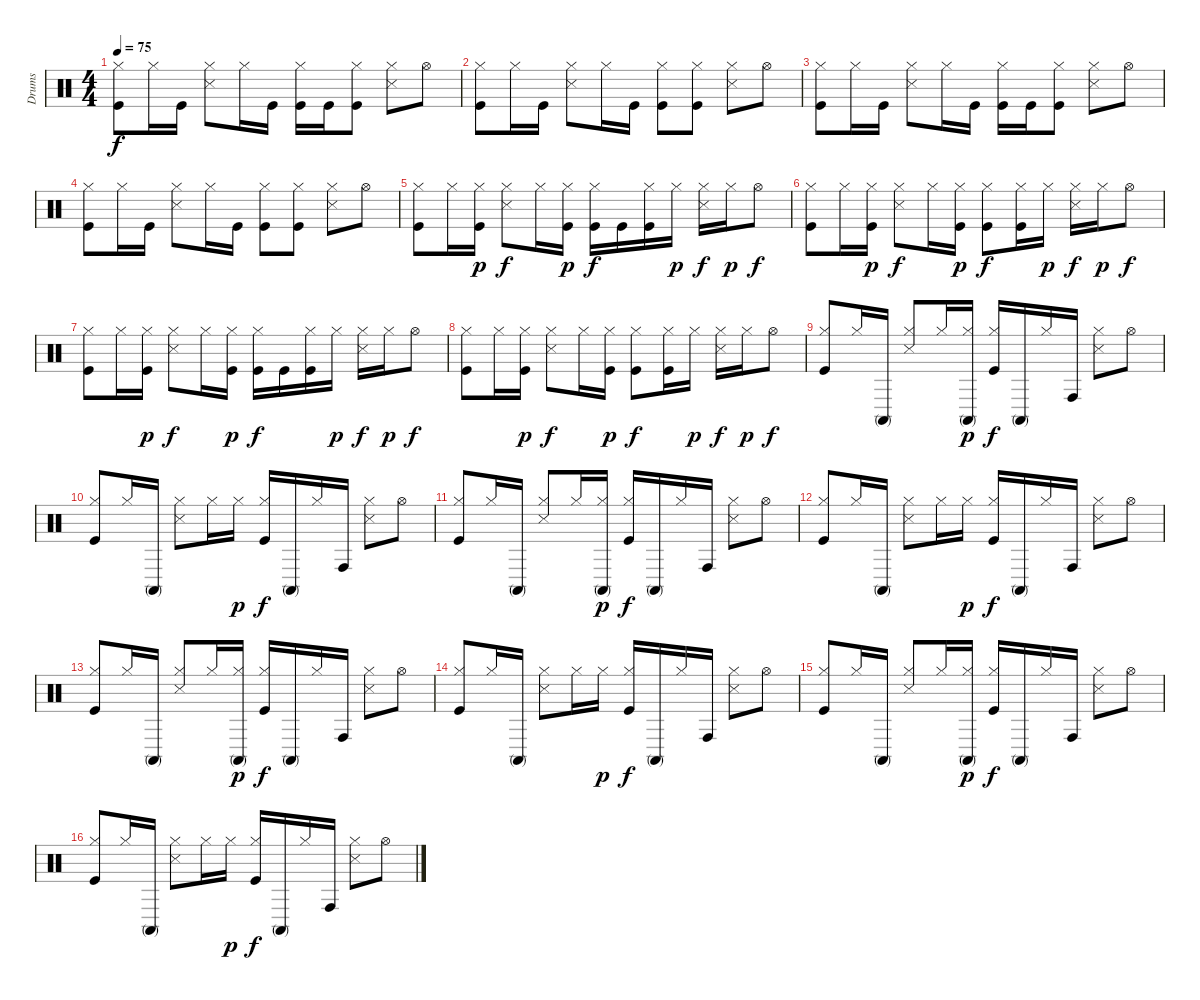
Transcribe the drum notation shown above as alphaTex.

\track ("Drums" "Drums") {instrument percussion}
\staff {score}
\articulation defaults
\ts (4 4)
\tempo 75
\clef neutral
\ks c
("Hi-Hat (closed)" "Kick (hit)").8{dy f} "Hi-Hat (closed)".16 "Kick (hit)".16 ("Hi-Hat (closed)" "Snare (side stick) 3").8 "Hi-Hat (closed)".16 "Kick (hit)".16 ("Hi-Hat (closed)" "Kick (hit)").16 "Kick (hit)".16 ("Hi-Hat (closed)" "Kick (hit)").8 ("Hi-Hat (closed)" "Snare (side stick) 3").8 "Hi-Hat (open)".8 |
("Hi-Hat (closed)" "Kick (hit)").8 "Hi-Hat (closed)".16 "Kick (hit)".16 ("Hi-Hat (closed)" "Snare (side stick) 3").8 "Hi-Hat (closed)".16 "Kick (hit)".16 ("Hi-Hat (closed)" "Kick (hit)").8 ("Hi-Hat (closed)" "Kick (hit)").8 ("Hi-Hat (closed)" "Snare (side stick) 3").8 "Hi-Hat (open)".8 |
("Hi-Hat (closed)" "Kick (hit)").8 "Hi-Hat (closed)".16 "Kick (hit)".16 ("Hi-Hat (closed)" "Snare (side stick) 3").8 "Hi-Hat (closed)".16 "Kick (hit)".16 ("Hi-Hat (closed)" "Kick (hit)").16 "Kick (hit)".16 ("Hi-Hat (closed)" "Kick (hit)").8 ("Hi-Hat (closed)" "Snare (side stick) 3").8 "Hi-Hat (open)".8 |
("Hi-Hat (closed)" "Kick (hit)").8 "Hi-Hat (closed)".16 "Kick (hit)".16 ("Hi-Hat (closed)" "Snare (side stick) 3").8 "Hi-Hat (closed)".16 "Kick (hit)".16 ("Hi-Hat (closed)" "Kick (hit)").8 ("Hi-Hat (closed)" "Kick (hit)").8 ("Hi-Hat (closed)" "Snare (side stick) 3").8 "Hi-Hat (open)".8 |
("Hi-Hat (closed)" "Kick (hit)").8 "Hi-Hat (closed)".16 ("Hi-Hat (closed)" "Kick (hit)").16{dy p} ("Hi-Hat (closed)" "Snare (side stick) 3").8{dy f} "Hi-Hat (closed)".16 ("Hi-Hat (closed)" "Kick (hit)").16{dy p} ("Hi-Hat (closed)" "Kick (hit)").16{dy f} "Kick (hit)".16 ("Hi-Hat (closed)" "Kick (hit)").16 "Hi-Hat (closed)".16{dy p} ("Hi-Hat (closed)" "Snare (side stick) 3").16{dy f} "Hi-Hat (closed)".16{dy p} "Hi-Hat (open)".8{dy f} |
("Hi-Hat (closed)" "Kick (hit)").8 "Hi-Hat (closed)".16 ("Hi-Hat (closed)" "Kick (hit)").16{dy p} ("Hi-Hat (closed)" "Snare (side stick) 3").8{dy f} "Hi-Hat (closed)".16 ("Hi-Hat (closed)" "Kick (hit)").16{dy p} ("Hi-Hat (closed)" "Kick (hit)").8{dy f} ("Hi-Hat (closed)" "Kick (hit)").16 "Hi-Hat (closed)".16{dy p} ("Hi-Hat (closed)" "Snare (side stick) 3").16{dy f} "Hi-Hat (closed)".16{dy p} "Hi-Hat (open)".8{dy f} |
("Hi-Hat (closed)" "Kick (hit)").8 "Hi-Hat (closed)".16 ("Hi-Hat (closed)" "Kick (hit)").16{dy p} ("Hi-Hat (closed)" "Snare (side stick) 3").8{dy f} "Hi-Hat (closed)".16 ("Hi-Hat (closed)" "Kick (hit)").16{dy p} ("Hi-Hat (closed)" "Kick (hit)").16{dy f} "Kick (hit)".16 ("Hi-Hat (closed)" "Kick (hit)").16 "Hi-Hat (closed)".16{dy p} ("Hi-Hat (closed)" "Snare (side stick) 3").16{dy f} "Hi-Hat (closed)".16{dy p} "Hi-Hat (open)".8{dy f} |
("Hi-Hat (closed)" "Kick (hit)").8 "Hi-Hat (closed)".16 ("Hi-Hat (closed)" "Kick (hit)").16{dy p} ("Hi-Hat (closed)" "Snare (side stick) 3").8{dy f} "Hi-Hat (closed)".16 ("Hi-Hat (closed)" "Kick (hit)").16{dy p} ("Hi-Hat (closed)" "Kick (hit)").8{dy f} ("Hi-Hat (closed)" "Kick (hit)").16 "Hi-Hat (closed)".16{dy p} ("Hi-Hat (closed)" "Snare (side stick) 3").16{dy f} "Hi-Hat (closed)".16{dy p} "Hi-Hat (open)".8{dy f} |
("Hi-Hat (closed)" "Kick (hit)").8 "Hi-Hat (closed)".16 "Conga high (mute)".16 ("Hi-Hat (closed)" "Snare (side stick) 3").8 "Hi-Hat (closed)".16 ("Hi-Hat (closed)" "Conga high (mute)").16{dy p} ("Hi-Hat (closed)" "Kick (hit)").16{dy f} "Conga high (mute)".16 "Hi-Hat (closed)".16 "Conga high (hit)".16 ("Hi-Hat (closed)" "Snare (side stick) 3").8 "Hi-Hat (open)".8 |
("Hi-Hat (closed)" "Kick (hit)").8 "Hi-Hat (closed)".16 "Conga high (mute)".16 ("Hi-Hat (closed)" "Snare (side stick) 3").8 "Hi-Hat (closed)".16 "Hi-Hat (closed)".16{dy p} ("Hi-Hat (closed)" "Kick (hit)").16{dy f} "Conga high (mute)".16 "Hi-Hat (closed)".16 "Conga high (hit)".16 ("Hi-Hat (closed)" "Snare (side stick) 3").8 "Hi-Hat (open)".8 |
("Hi-Hat (closed)" "Kick (hit)").8 "Hi-Hat (closed)".16 "Conga high (mute)".16 ("Hi-Hat (closed)" "Snare (side stick) 3").8 "Hi-Hat (closed)".16 ("Hi-Hat (closed)" "Conga high (mute)").16{dy p} ("Hi-Hat (closed)" "Kick (hit)").16{dy f} "Conga high (mute)".16 "Hi-Hat (closed)".16 "Conga high (hit)".16 ("Hi-Hat (closed)" "Snare (side stick) 3").8 "Hi-Hat (open)".8 |
("Hi-Hat (closed)" "Kick (hit)").8 "Hi-Hat (closed)".16 "Conga high (mute)".16 ("Hi-Hat (closed)" "Snare (side stick) 3").8 "Hi-Hat (closed)".16 "Hi-Hat (closed)".16{dy p} ("Hi-Hat (closed)" "Kick (hit)").16{dy f} "Conga high (mute)".16 "Hi-Hat (closed)".16 "Conga high (hit)".16 ("Hi-Hat (closed)" "Snare (side stick) 3").8 "Hi-Hat (open)".8 |
("Hi-Hat (closed)" "Kick (hit)").8 "Hi-Hat (closed)".16 "Conga high (mute)".16 ("Hi-Hat (closed)" "Snare (side stick) 3").8 "Hi-Hat (closed)".16 ("Hi-Hat (closed)" "Conga high (mute)").16{dy p} ("Hi-Hat (closed)" "Kick (hit)").16{dy f} "Conga high (mute)".16 "Hi-Hat (closed)".16 "Conga high (hit)".16 ("Hi-Hat (closed)" "Snare (side stick) 3").8 "Hi-Hat (open)".8 |
("Hi-Hat (closed)" "Kick (hit)").8 "Hi-Hat (closed)".16 "Conga high (mute)".16 ("Hi-Hat (closed)" "Snare (side stick) 3").8 "Hi-Hat (closed)".16 "Hi-Hat (closed)".16{dy p} ("Hi-Hat (closed)" "Kick (hit)").16{dy f} "Conga high (mute)".16 "Hi-Hat (closed)".16 "Conga high (hit)".16 ("Hi-Hat (closed)" "Snare (side stick) 3").8 "Hi-Hat (open)".8 |
("Hi-Hat (closed)" "Kick (hit)").8 "Hi-Hat (closed)".16 "Conga high (mute)".16 ("Hi-Hat (closed)" "Snare (side stick) 3").8 "Hi-Hat (closed)".16 ("Hi-Hat (closed)" "Conga high (mute)").16{dy p} ("Hi-Hat (closed)" "Kick (hit)").16{dy f} "Conga high (mute)".16 "Hi-Hat (closed)".16 "Conga high (hit)".16 ("Hi-Hat (closed)" "Snare (side stick) 3").8 "Hi-Hat (open)".8 |
("Hi-Hat (closed)" "Kick (hit)").8 "Hi-Hat (closed)".16 "Conga high (mute)".16 ("Hi-Hat (closed)" "Snare (side stick) 3").8 "Hi-Hat (closed)".16 "Hi-Hat (closed)".16{dy p} ("Hi-Hat (closed)" "Kick (hit)").16{dy f} "Conga high (mute)".16 "Hi-Hat (closed)".16 "Conga high (hit)".16 ("Hi-Hat (closed)" "Snare (side stick) 3").8 "Hi-Hat (open)".8
